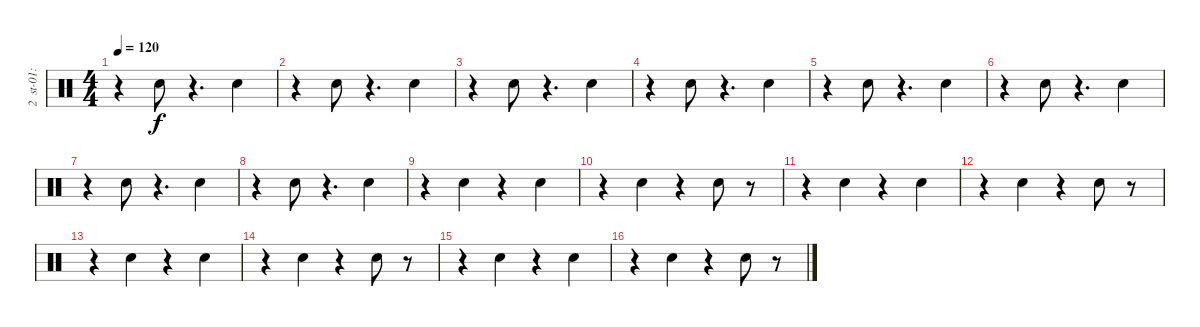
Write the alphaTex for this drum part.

\track (" 2  st-01:popsnare2" " 2  st-01:") {instrument percussion}
\staff {score}
\articulation defaults
\ts (4 4)
\tempo 120
\clef neutral
\ks c
r.4{dy f} "Snare (hit) 2".8 r.4{d} "Snare (hit) 2".4 |
r.4 "Snare (hit) 2".8 r.4{d} "Snare (hit) 2".4 |
r.4 "Snare (hit) 2".8 r.4{d} "Snare (hit) 2".4 |
r.4 "Snare (hit) 2".8 r.4{d} "Snare (hit) 2".4 |
r.4 "Snare (hit) 2".8 r.4{d} "Snare (hit) 2".4 |
r.4 "Snare (hit) 2".8 r.4{d} "Snare (hit) 2".4 |
r.4 "Snare (hit) 2".8 r.4{d} "Snare (hit) 2".4 |
r.4 "Snare (hit) 2".8 r.4{d} "Snare (hit) 2".4 |
r.4 "Snare (hit) 2".4 r.4 "Snare (hit) 2".4 |
r.4 "Snare (hit) 2".4 r.4 "Snare (hit) 2".8 r.8 |
r.4 "Snare (hit) 2".4 r.4 "Snare (hit) 2".4 |
r.4 "Snare (hit) 2".4 r.4 "Snare (hit) 2".8 r.8 |
r.4 "Snare (hit) 2".4 r.4 "Snare (hit) 2".4 |
r.4 "Snare (hit) 2".4 r.4 "Snare (hit) 2".8 r.8 |
r.4 "Snare (hit) 2".4 r.4 "Snare (hit) 2".4 |
r.4 "Snare (hit) 2".4 r.4 "Snare (hit) 2".8 r.8
